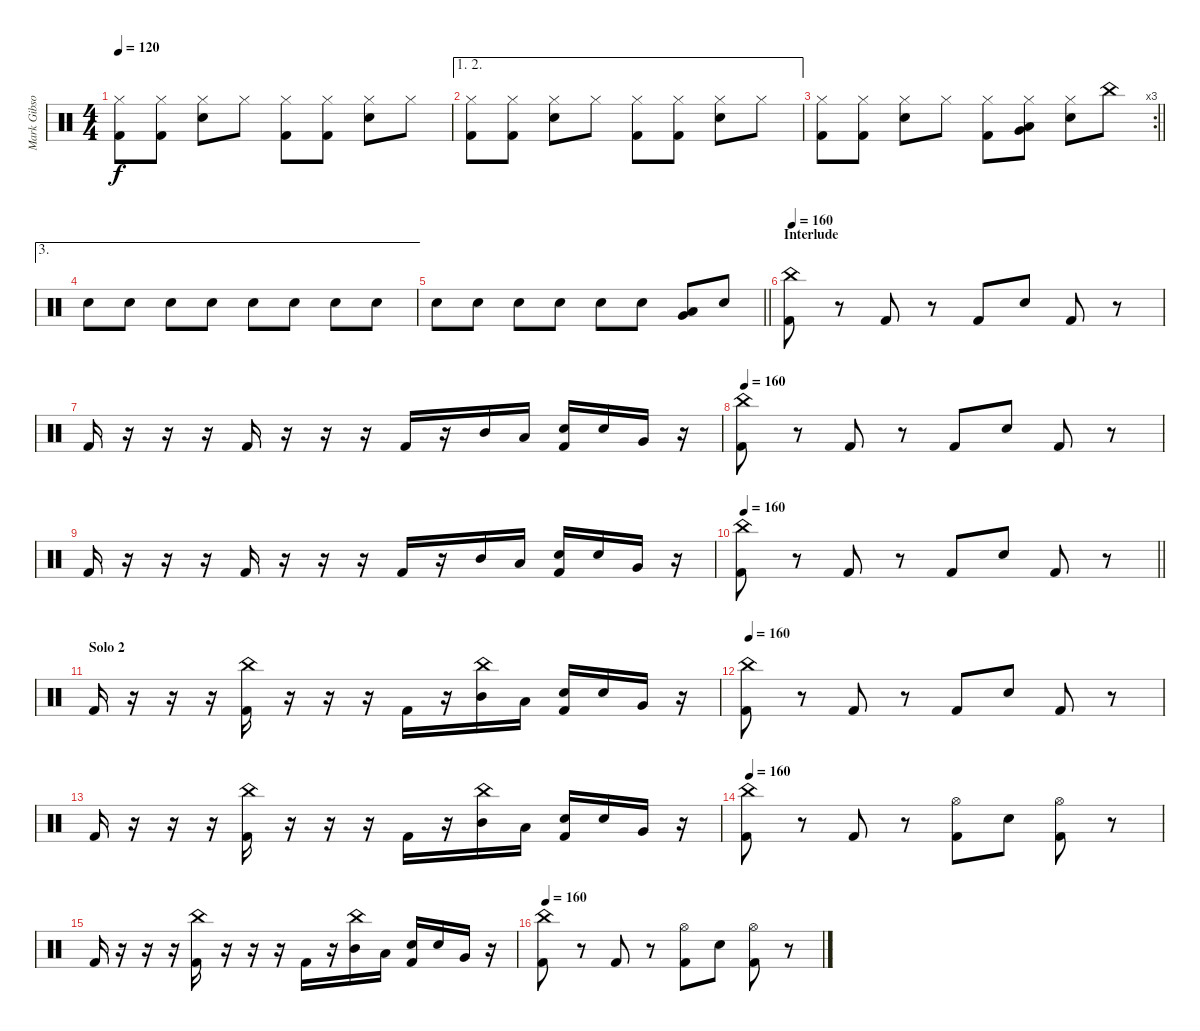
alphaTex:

\track ("Mark Gibson" "Mark Gibso") {instrument percussion}
\staff {score}
\articulation defaults
\ts (4 4)
\tempo 120
\clef neutral
\ks c
("Hi-Hat (closed)" "Kick (hit) 2").8{dy f} ("Hi-Hat (closed)" "Kick (hit) 2").8 ("Hi-Hat (closed)" "Electric Snare (hit)").8 "Hi-Hat (closed)".8 ("Hi-Hat (closed)" "Kick (hit) 2").8 ("Hi-Hat (closed)" "Kick (hit) 2").8 ("Hi-Hat (closed)" "Electric Snare (hit)").8 "Hi-Hat (closed)".8 |
\ae (1 2)
("Hi-Hat (closed)" "Kick (hit) 2").8 ("Hi-Hat (closed)" "Kick (hit) 2").8 ("Hi-Hat (closed)" "Electric Snare (hit)").8 "Hi-Hat (closed)".8 ("Hi-Hat (closed)" "Kick (hit) 2").8 ("Hi-Hat (closed)" "Kick (hit) 2").8 ("Hi-Hat (closed)" "Electric Snare (hit)").8 "Hi-Hat (closed)".8 |
\rc 3
\barLineRight lightlight
("Hi-Hat (closed)" "Kick (hit) 2").8 ("Hi-Hat (closed)" "Kick (hit) 2").8 ("Hi-Hat (closed)" "Electric Snare (hit)").8 "Hi-Hat (closed)".8 ("Hi-Hat (closed)" "Kick (hit) 2").8 ("Hi-Hat (closed)" "Low Floor Tom (hit)" "Very Low Tom (hit)").8 ("Hi-Hat (closed)" "Electric Snare (hit)").8 "China (hit)".8 |
\ae 3 "Electric Snare (hit)".8 "Electric Snare (hit)".8 "Electric Snare (hit)".8 "Electric Snare (hit)".8 "Electric Snare (hit)".8 "Electric Snare (hit)".8 "Electric Snare (hit)".8 "Electric Snare (hit)".8
|
\barLineRight lightlight "Electric Snare (hit)".8 "Electric Snare (hit)".8 "Electric Snare (hit)".8 "Electric Snare (hit)".8 "Electric Snare (hit)".8 "Electric Snare (hit)".8
("Very Low Tom (hit)" "Low Floor Tom (hit)").8 "Electric Snare (hit)".8 |
\section ("" "Interlude")
\tempo 160
("China (hit)" "Kick (hit) 2").8 r.8 "Kick (hit) 2".8 r.8 "Kick (hit) 2".8 "Electric Snare (hit)".8 "Kick (hit) 2".8 r.8 |
"Kick (hit) 2".16 r.16 r.16 r.16 "Kick (hit) 2".16 r.16 r.16 r.16 "Kick (hit) 2".16 r.16 "Mid Tom (hit)".16 "Low Tom (hit)".16 ("Electric Snare (hit)" "Kick (hit) 2").16 "Electric Snare (hit)".16 "Very Low Tom (hit)".16 r.16 |
\tempo 160
("China (hit)" "Kick (hit) 2").8 r.8 "Kick (hit) 2".8 r.8 "Kick (hit) 2".8 "Electric Snare (hit)".8 "Kick (hit) 2".8 r.8 |
"Kick (hit) 2".16 r.16 r.16 r.16 "Kick (hit) 2".16 r.16 r.16 r.16 "Kick (hit) 2".16 r.16 "Mid Tom (hit)".16 "Low Tom (hit)".16 ("Electric Snare (hit)" "Kick (hit) 2").16 "Electric Snare (hit)".16 "Very Low Tom (hit)".16 r.16 |
\tempo 160
\barLineRight lightlight
("China (hit)" "Kick (hit) 2").8 r.8 "Kick (hit) 2".8 r.8 "Kick (hit) 2".8 "Electric Snare (hit)".8 "Kick (hit) 2".8 r.8 |
\section ("" "Solo 2")
"Kick (hit) 2".16 r.16 r.16 r.16 ("China (hit)" "Kick (hit) 2").16 r.16 r.16 r.16 "Kick (hit) 2".16 r.16 ("China (hit)" "Mid Tom (hit)").16 "Low Tom (hit)".16 ("Electric Snare (hit)" "Kick (hit) 2").16 "Electric Snare (hit)".16 "Very Low Tom (hit)".16 r.16 |
\tempo 160
("China (hit)" "Kick (hit) 2").8 r.8 "Kick (hit) 2".8 r.8 "Kick (hit) 2".8 "Electric Snare (hit)".8 "Kick (hit) 2".8 r.8 |
"Kick (hit) 2".16 r.16 r.16 r.16 ("China (hit)" "Kick (hit) 2").16 r.16 r.16 r.16 "Kick (hit) 2".16 r.16 ("China (hit)" "Mid Tom (hit)").16 "Low Tom (hit)".16 ("Electric Snare (hit)" "Kick (hit) 2").16 "Electric Snare (hit)".16 "Very Low Tom (hit)".16 r.16 |
\tempo 160
("China (hit)" "Kick (hit) 2").8 r.8 "Kick (hit) 2".8 r.8 ("Hi-Hat (open)" "Kick (hit) 2").8 "Electric Snare (hit)".8 ("Hi-Hat (open)" "Kick (hit) 2").8 r.8 |
"Kick (hit) 2".16 r.16 r.16 r.16 ("China (hit)" "Kick (hit) 2").16 r.16 r.16 r.16 "Kick (hit) 2".16 r.16 ("China (hit)" "Mid Tom (hit)").16 "Low Tom (hit)".16 ("Electric Snare (hit)" "Kick (hit) 2").16 "Electric Snare (hit)".16 "Very Low Tom (hit)".16 r.16 |
\tempo 160
("China (hit)" "Kick (hit) 2").8 r.8 "Kick (hit) 2".8 r.8 ("Hi-Hat (open)" "Kick (hit) 2").8 "Electric Snare (hit)".8 ("Hi-Hat (open)" "Kick (hit) 2").8 r.8
